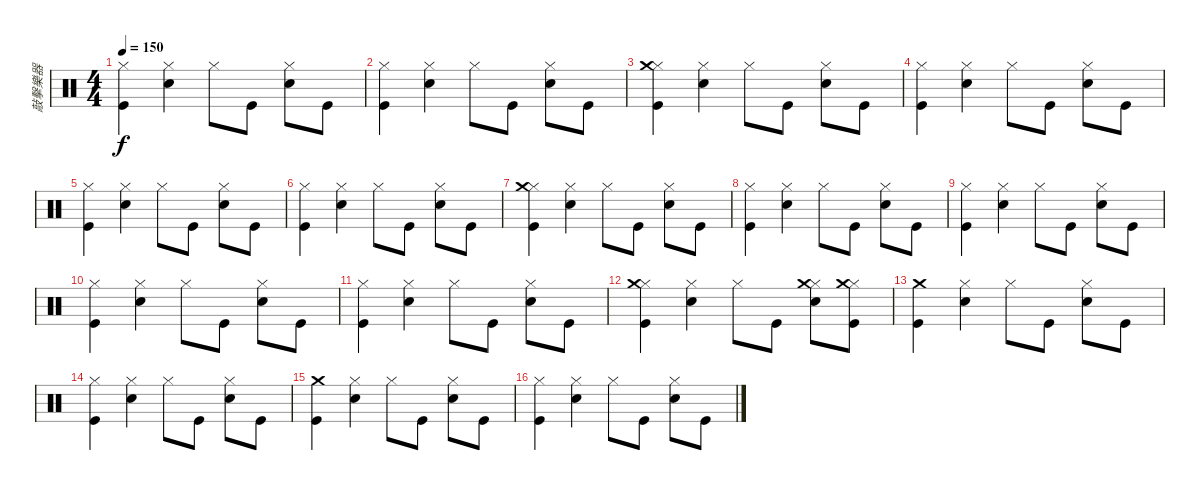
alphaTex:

\track ("敲擊樂器" "敲擊樂器") {instrument percussion}
\staff {score}
\articulation defaults
\ts (4 4)
\tempo 150
\clef neutral
\ks c
("Kick (hit)" "Hi-Hat (closed)").4{dy f} ("Snare (hit) 2" "Hi-Hat (closed)").4 "Hi-Hat (closed)".8 "Kick (hit)".8 ("Snare (hit) 2" "Hi-Hat (closed)").8 "Kick (hit)".8 |
("Kick (hit)" "Hi-Hat (closed)").4 ("Snare (hit) 2" "Hi-Hat (closed)").4 "Hi-Hat (closed)".8 "Kick (hit)".8 ("Snare (hit) 2" "Hi-Hat (closed)").8 "Kick (hit)".8 |
("Kick (hit)" "Hi-Hat (closed)" "Crash medium (hit)").4 ("Snare (hit) 2" "Hi-Hat (closed)").4 "Hi-Hat (closed)".8 "Kick (hit)".8 ("Snare (hit) 2" "Hi-Hat (closed)").8 "Kick (hit)".8 |
("Kick (hit)" "Hi-Hat (closed)").4 ("Snare (hit) 2" "Hi-Hat (closed)").4 "Hi-Hat (closed)".8 "Kick (hit)".8 ("Snare (hit) 2" "Hi-Hat (closed)").8 "Kick (hit)".8 |
("Kick (hit)" "Hi-Hat (closed)").4 ("Snare (hit) 2" "Hi-Hat (closed)").4 "Hi-Hat (closed)".8 "Kick (hit)".8 ("Snare (hit) 2" "Hi-Hat (closed)").8 "Kick (hit)".8 |
("Kick (hit)" "Hi-Hat (closed)").4 ("Snare (hit) 2" "Hi-Hat (closed)").4 "Hi-Hat (closed)".8 "Kick (hit)".8 ("Snare (hit) 2" "Hi-Hat (closed)").8 "Kick (hit)".8 |
("Kick (hit)" "Hi-Hat (closed)" "Crash medium (hit)").4 ("Snare (hit) 2" "Hi-Hat (closed)").4 "Hi-Hat (closed)".8 "Kick (hit)".8 ("Snare (hit) 2" "Hi-Hat (closed)").8 "Kick (hit)".8 |
("Kick (hit)" "Hi-Hat (closed)").4 ("Snare (hit) 2" "Hi-Hat (closed)").4 "Hi-Hat (closed)".8 "Kick (hit)".8 ("Snare (hit) 2" "Hi-Hat (closed)").8 "Kick (hit)".8 |
("Kick (hit)" "Hi-Hat (closed)").4 ("Snare (hit) 2" "Hi-Hat (closed)").4 "Hi-Hat (closed)".8 "Kick (hit)".8 ("Snare (hit) 2" "Hi-Hat (closed)").8 "Kick (hit)".8 |
("Kick (hit)" "Hi-Hat (closed)").4 ("Snare (hit) 2" "Hi-Hat (closed)").4 "Hi-Hat (closed)".8 "Kick (hit)".8 ("Snare (hit) 2" "Hi-Hat (closed)").8 "Kick (hit)".8 |
("Kick (hit)" "Hi-Hat (closed)").4 ("Snare (hit) 2" "Hi-Hat (closed)").4 "Hi-Hat (closed)".8 "Kick (hit)".8 ("Snare (hit) 2" "Hi-Hat (closed)").8 "Kick (hit)".8 |
("Kick (hit)" "Hi-Hat (closed)" "Crash medium (hit)").4 ("Snare (hit) 2" "Hi-Hat (closed)").4 "Hi-Hat (closed)".8 "Kick (hit)".8 ("Snare (hit) 2" "Hi-Hat (closed)" "Crash medium (hit)").8 ("Kick (hit)" "Hi-Hat (closed)" "Crash medium (hit)").8 |
("Kick (hit)" "Crash medium (hit)").4 ("Snare (hit) 2" "Hi-Hat (closed)").4 "Hi-Hat (closed)".8 "Kick (hit)".8 ("Snare (hit) 2" "Hi-Hat (closed)").8 "Kick (hit)".8 |
("Kick (hit)" "Hi-Hat (closed)").4 ("Snare (hit) 2" "Hi-Hat (closed)").4 "Hi-Hat (closed)".8 "Kick (hit)".8 ("Snare (hit) 2" "Hi-Hat (closed)").8 "Kick (hit)".8 |
("Kick (hit)" "Crash medium (hit)").4 ("Snare (hit) 2" "Hi-Hat (closed)").4 "Hi-Hat (closed)".8 "Kick (hit)".8 ("Snare (hit) 2" "Hi-Hat (closed)").8 "Kick (hit)".8 |
("Kick (hit)" "Hi-Hat (closed)").4 ("Snare (hit) 2" "Hi-Hat (closed)").4 "Hi-Hat (closed)".8 "Kick (hit)".8 ("Snare (hit) 2" "Hi-Hat (closed)").8 "Kick (hit)".8
